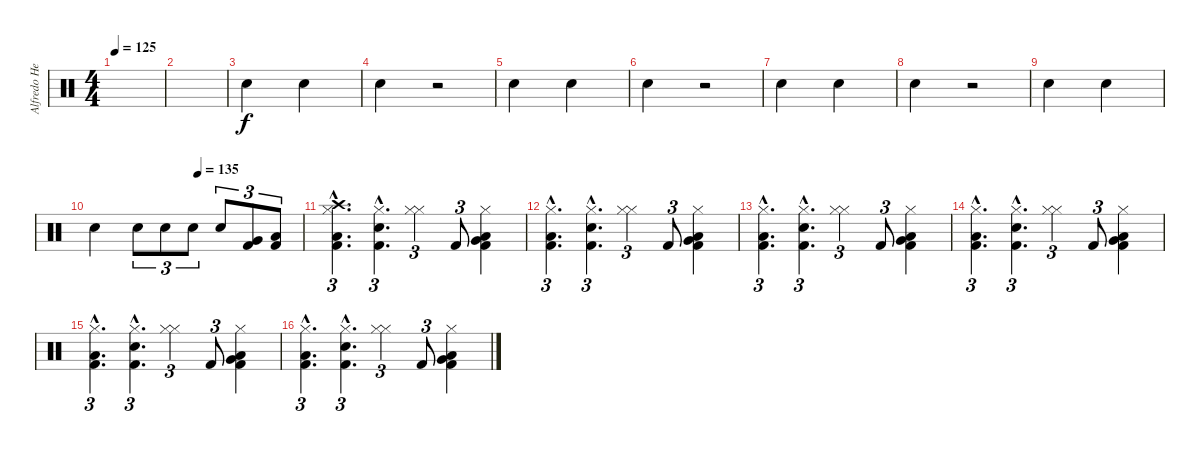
\track ("Alfredo Hernandez" "Alfredo He") {instrument percussion}
\staff {score}
\articulation defaults
\ts (4 4)
\tempo 125
\clef neutral
\ks c
|
|
"Metronome (bell)".2{volume 8} "Metronome (bell)".2 |
"Metronome (bell)".2 r.2 |
"Metronome (bell)".2 "Metronome (bell)".2 |
"Metronome (bell)".2 r.2 |
"Metronome (bell)".2 "Metronome (bell)".2 |
"Metronome (bell)".2 r.2 |
"Metronome (bell)".2 "Metronome (bell)".2 |
\tempo (135 0.5)
"Metronome (bell)".2 "Electric Snare (hit)".8{tu (3 2) volume 13} "Electric Snare (hit)".8{tu (3 2)} "Electric Snare (hit)".8{tu (3 2)} "Electric Snare (hit)".8{tu (3 2)} ("Kick (hit) 2" "Very Low Tom (hit)").8{tu (3 2)} ("Kick (hit) 2" "Low Floor Tom (hit)").8{tu (3 2)} |
("Hi-Hat (closed)"{hac} "Crash high (hit)"{hac} "Low Floor Tom (hit)"{hac} "Kick (hit) 2"{hac}).4{d tu (3 2)} ("Electric Snare (hit)"{hac} "Hi-Hat (closed)"{hac} "Kick (hit) 2"{hac}).4{d tu (3 2)} ("Hi-Hat (closed)" "Hi-Hat (closed)").4{tu (3 2)} "Kick (hit) 2".8{tu (3 2)} ("Hi-Hat (closed)" "Very Low Tom (hit)" "Low Floor Tom (hit)" "Kick (hit) 2").4 |
("Hi-Hat (closed)"{hac} "Low Floor Tom (hit)"{hac} "Kick (hit) 2"{hac}).4{d tu (3 2)} ("Electric Snare (hit)"{hac} "Hi-Hat (closed)"{hac} "Kick (hit) 2"{hac}).4{d tu (3 2)} ("Hi-Hat (closed)" "Hi-Hat (closed)").4{tu (3 2)} "Kick (hit) 2".8{tu (3 2)} ("Hi-Hat (closed)" "Very Low Tom (hit)" "Low Floor Tom (hit)" "Kick (hit) 2").4 |
("Hi-Hat (closed)"{hac} "Low Floor Tom (hit)"{hac} "Kick (hit) 2"{hac}).4{d tu (3 2)} ("Electric Snare (hit)"{hac} "Hi-Hat (closed)"{hac} "Kick (hit) 2"{hac}).4{d tu (3 2)} ("Hi-Hat (closed)" "Hi-Hat (closed)").4{tu (3 2)} "Kick (hit) 2".8{tu (3 2)} ("Hi-Hat (closed)" "Very Low Tom (hit)" "Low Floor Tom (hit)" "Kick (hit) 2").4 |
("Hi-Hat (closed)"{hac} "Low Floor Tom (hit)"{hac} "Kick (hit) 2"{hac}).4{d tu (3 2)} ("Electric Snare (hit)"{hac} "Hi-Hat (closed)"{hac} "Kick (hit) 2"{hac}).4{d tu (3 2)} ("Hi-Hat (closed)" "Hi-Hat (closed)").4{tu (3 2)} "Kick (hit) 2".8{tu (3 2)} ("Hi-Hat (closed)" "Very Low Tom (hit)" "Low Floor Tom (hit)" "Kick (hit) 2").4 |
("Hi-Hat (closed)"{hac} "Low Floor Tom (hit)"{hac} "Kick (hit) 2"{hac}).4{d tu (3 2)} ("Electric Snare (hit)"{hac} "Hi-Hat (closed)"{hac} "Kick (hit) 2"{hac}).4{d tu (3 2)} ("Hi-Hat (closed)" "Hi-Hat (closed)").4{tu (3 2)} "Kick (hit) 2".8{tu (3 2)} ("Hi-Hat (closed)" "Very Low Tom (hit)" "Low Floor Tom (hit)" "Kick (hit) 2").4 |
("Hi-Hat (closed)"{hac} "Low Floor Tom (hit)"{hac} "Kick (hit) 2"{hac}).4{d tu (3 2)} ("Electric Snare (hit)"{hac} "Hi-Hat (closed)"{hac} "Kick (hit) 2"{hac}).4{d tu (3 2)} ("Hi-Hat (closed)" "Hi-Hat (closed)").4{tu (3 2)} "Kick (hit) 2".8{tu (3 2)} ("Hi-Hat (closed)" "Very Low Tom (hit)" "Low Floor Tom (hit)" "Kick (hit) 2").4
